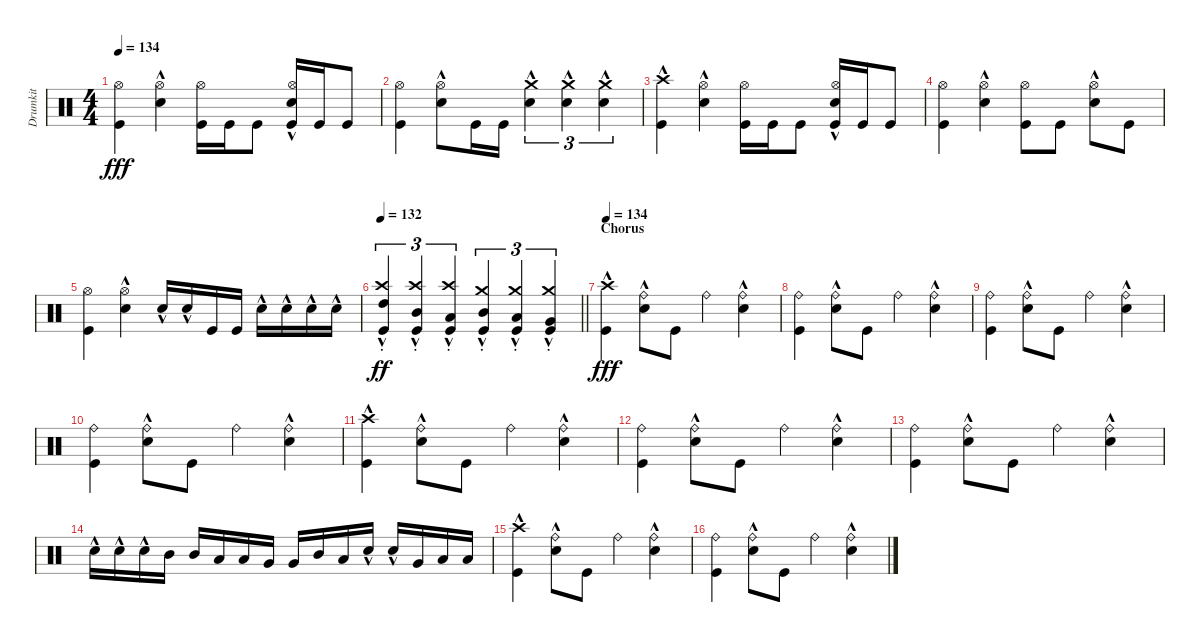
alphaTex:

\track ("Drumkit" "Drumkit") {instrument percussion}
\staff {score}
\articulation defaults
\ts (4 4)
\tempo 134
\clef neutral
\ks aminor
("Kick (hit)" "Hi-Hat (open)").4{dy fff} ("Snare (hit) 2"{hac} "Hi-Hat (open)").4 ("Kick (hit)" "Hi-Hat (open)").16 "Kick (hit)".16 "Kick (hit)".8 ("Hi-Hat (open)" "Kick (hit)" "Snare (hit) 2"{hac}).16 "Kick (hit)".16 "Kick (hit)".8 |
("Kick (hit)" "Hi-Hat (open)").4 ("Snare (hit) 2"{hac} "Hi-Hat (open)").8 "Kick (hit)".16 "Kick (hit)".16 ("Snare (hit) 2"{hac} "Crash medium (hit)").4{tu (3 2)} ("Snare (hit) 2"{hac} "Crash medium (hit)").4{tu (3 2)} ("Snare (hit) 2"{hac} "Crash medium (hit)").4{tu (3 2)} |
("Kick (hit)" "Crash high (hit)"{hac}).4 ("Snare (hit) 2"{hac} "Hi-Hat (open)").4 ("Kick (hit)" "Hi-Hat (open)").16 "Kick (hit)".16 "Kick (hit)".8 ("Hi-Hat (open)" "Kick (hit)" "Snare (hit) 2"{hac}).16 "Kick (hit)".16 "Kick (hit)".8 |
("Kick (hit)" "Hi-Hat (open)").4 ("Snare (hit) 2"{hac} "Hi-Hat (open)").4 ("Kick (hit)" "Hi-Hat (open)").8 "Kick (hit)".8 ("Snare (hit) 2"{hac} "Hi-Hat (open)").8 "Kick (hit)".8 |
("Kick (hit)" "Hi-Hat (open)").4 ("Snare (hit) 2"{hac} "Hi-Hat (open)").4 "Snare (hit) 2"{hac}.16 "Snare (hit) 2"{hac}.16 "Kick (hit)".16 "Kick (hit)".16 "Snare (hit) 2"{hac}.16 "Snare (hit) 2"{hac}.16 "Snare (hit) 2"{hac}.16 "Snare (hit) 2"{hac}.16 |
\tempo 132
\barLineRight lightlight
("Kick (hit)" "High Tom (hit)"{hac} "Crash high (hit)"{hac st}).4{tu (3 2) dy ff} ("Kick (hit)" "Mid Tom (hit)"{hac} "Crash high (hit)"{hac st}).4{tu (3 2)} ("Kick (hit)" "Low Tom (hit)"{hac} "Crash high (hit)"{hac st}).4{tu (3 2)} ("Kick (hit)" "Mid Tom (hit)"{hac} "Crash medium (hit)"{hac st}).4{tu (3 2)} ("Kick (hit)" "Low Tom (hit)"{hac} "Crash medium (hit)"{hac st}).4{tu (3 2)} ("Kick (hit)" "Very Low Tom (hit)"{hac} "Crash medium (hit)"{hac st}).4{tu (3 2)} |
\section ("" "Chorus")
\tempo 134
("Kick (hit)" "Crash high (hit)"{hac}).4{dy fff} ("Snare (hit) 2"{hac} "Ride (bell)").8 "Kick (hit)".8 "Ride (bell)".4 ("Snare (hit) 2"{hac} "Ride (bell)").4 |
("Kick (hit)" "Ride (bell)").4 ("Snare (hit) 2"{hac} "Ride (bell)").8 "Kick (hit)".8 "Ride (bell)".4 ("Snare (hit) 2"{hac} "Ride (bell)").4 |
("Kick (hit)" "Ride (bell)").4 ("Snare (hit) 2"{hac} "Ride (bell)").8 "Kick (hit)".8 "Ride (bell)".4 ("Snare (hit) 2"{hac} "Ride (bell)").4 |
("Kick (hit)" "Ride (bell)").4 ("Snare (hit) 2"{hac} "Ride (bell)").8 "Kick (hit)".8 "Ride (bell)".4 ("Snare (hit) 2"{hac} "Ride (bell)").4 |
("Kick (hit)" "Crash high (hit)"{hac}).4 ("Snare (hit) 2"{hac} "Ride (bell)").8 "Kick (hit)".8 "Ride (bell)".4 ("Snare (hit) 2"{hac} "Ride (bell)").4 |
("Kick (hit)" "Ride (bell)").4 ("Snare (hit) 2"{hac} "Ride (bell)").8 "Kick (hit)".8 "Ride (bell)".4 ("Snare (hit) 2"{hac} "Ride (bell)").4 |
("Kick (hit)" "Ride (bell)").4 ("Snare (hit) 2"{hac} "Ride (bell)").8 "Kick (hit)".8 "Ride (bell)".4 ("Snare (hit) 2"{hac} "Ride (bell)").4 |
"Snare (hit) 2"{hac}.16 "Snare (hit) 2"{hac}.16 "Snare (hit) 2"{hac}.16 "Mid Tom (hit)".16 "Mid Tom (hit)".16 "Low Tom (hit)".16 "Low Tom (hit)".16 "Very Low Tom (hit)".16 "Very Low Tom (hit)".16 "Mid Tom (hit)".16 "Low Tom (hit)".16 "Snare (hit) 2"{hac}.16 "Snare (hit) 2"{hac}.16 "Very Low Tom (hit)".16 "Low Floor Tom (hit)".16 "Low Floor Tom (hit)".16 |
("Kick (hit)" "Crash high (hit)"{hac}).4 ("Snare (hit) 2"{hac} "Ride (bell)").8 "Kick (hit)".8 "Ride (bell)".4 ("Snare (hit) 2"{hac} "Ride (bell)").4 |
("Kick (hit)" "Ride (bell)").4 ("Snare (hit) 2"{hac} "Ride (bell)").8 "Kick (hit)".8 "Ride (bell)".4 ("Snare (hit) 2"{hac} "Ride (bell)").4
